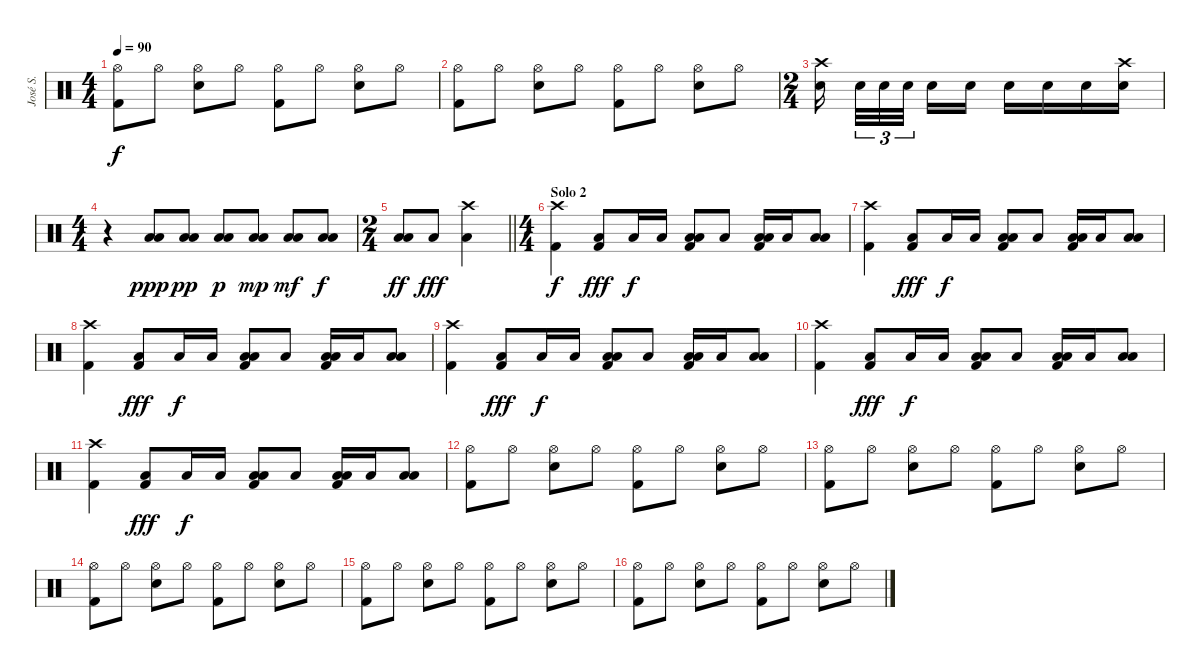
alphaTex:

\track ("José S." "José S.") {instrument percussion}
\staff {score}
\articulation defaults
\ts (4 4)
\tempo 90
\clef neutral
\ks c
("Hi-Hat (open)" "Kick (hit) 2").8{dy f} "Hi-Hat (open)".8 ("Hi-Hat (open)" "Electric Snare (hit)").8 "Hi-Hat (open)".8 ("Hi-Hat (open)" "Kick (hit) 2").8 "Hi-Hat (open)".8 ("Hi-Hat (open)" "Electric Snare (hit)").8 "Hi-Hat (open)".8 |
("Hi-Hat (open)" "Kick (hit) 2").8 "Hi-Hat (open)".8 ("Hi-Hat (open)" "Electric Snare (hit)").8 "Hi-Hat (open)".8 ("Hi-Hat (open)" "Kick (hit) 2").8 "Hi-Hat (open)".8 ("Hi-Hat (open)" "Electric Snare (hit)").8 "Hi-Hat (open)".8 |
\ts (2 4)
("Crash high (hit)" "Electric Snare (hit)").16{beam splitsecondary} "Electric Snare (hit)".32{tu (3 2)} "Electric Snare (hit)".32{tu (3 2)} "Electric Snare (hit)".32{tu (3 2) beam splitsecondary} "Electric Snare (hit)".16 "Electric Snare (hit)".16 "Electric Snare (hit)".16 "Electric Snare (hit)".16 "Electric Snare (hit)".16 ("Crash high (hit)" "Electric Snare (hit)").16 |
\ts (4 4)
r.4 ("Low Tom (hit)" "Low Floor Tom (hit)").8{dy ppp} ("Low Tom (hit)" "Low Floor Tom (hit)").8{dy pp} ("Low Tom (hit)" "Low Floor Tom (hit)").8{dy p} ("Low Tom (hit)" "Low Floor Tom (hit)").8{dy mp} ("Low Tom (hit)" "Low Floor Tom (hit)").8{dy mf} ("Low Tom (hit)" "Low Floor Tom (hit)").8{dy f} |
\ts (2 4)
\barLineRight lightlight
("Low Tom (hit)" "Low Floor Tom (hit)").8{dy ff} "Low Floor Tom (hit)".8{dy fff} ("Crash high (hit)" "Low Floor Tom (hit)").4 |
\ts (4 4)
\section ("" "Solo 2")
("Crash high (hit)" "Kick (hit) 2").4{dy f} ("Low Floor Tom (hit)" "Kick (hit) 2").8{dy fff} "Low Floor Tom (hit)".16{dy f} "Low Floor Tom (hit)".16 ("Low Tom (hit)" "Low Floor Tom (hit)" "Kick (hit) 2").8 "Low Floor Tom (hit)".8 ("Low Tom (hit)" "Low Floor Tom (hit)" "Kick (hit) 2").16 "Low Floor Tom (hit)".16 ("Low Tom (hit)" "Low Floor Tom (hit)").8 |
("Crash high (hit)" "Kick (hit) 2").4 ("Low Floor Tom (hit)" "Kick (hit) 2").8{dy fff} "Low Floor Tom (hit)".16{dy f} "Low Floor Tom (hit)".16 ("Low Tom (hit)" "Low Floor Tom (hit)" "Kick (hit) 2").8 "Low Floor Tom (hit)".8 ("Low Tom (hit)" "Low Floor Tom (hit)" "Kick (hit) 2").16 "Low Floor Tom (hit)".16 ("Low Tom (hit)" "Low Floor Tom (hit)").8 |
("Crash high (hit)" "Kick (hit) 2").4 ("Low Floor Tom (hit)" "Kick (hit) 2").8{dy fff} "Low Floor Tom (hit)".16{dy f} "Low Floor Tom (hit)".16 ("Low Tom (hit)" "Low Floor Tom (hit)" "Kick (hit) 2").8 "Low Floor Tom (hit)".8 ("Low Tom (hit)" "Low Floor Tom (hit)" "Kick (hit) 2").16 "Low Floor Tom (hit)".16 ("Low Tom (hit)" "Low Floor Tom (hit)").8 |
("Crash high (hit)" "Kick (hit) 2").4 ("Low Floor Tom (hit)" "Kick (hit) 2").8{dy fff} "Low Floor Tom (hit)".16{dy f} "Low Floor Tom (hit)".16 ("Low Tom (hit)" "Low Floor Tom (hit)" "Kick (hit) 2").8 "Low Floor Tom (hit)".8 ("Low Tom (hit)" "Low Floor Tom (hit)" "Kick (hit) 2").16 "Low Floor Tom (hit)".16 ("Low Tom (hit)" "Low Floor Tom (hit)").8 |
("Crash high (hit)" "Kick (hit) 2").4 ("Low Floor Tom (hit)" "Kick (hit) 2").8{dy fff} "Low Floor Tom (hit)".16{dy f} "Low Floor Tom (hit)".16 ("Low Tom (hit)" "Low Floor Tom (hit)" "Kick (hit) 2").8 "Low Floor Tom (hit)".8 ("Low Tom (hit)" "Low Floor Tom (hit)" "Kick (hit) 2").16 "Low Floor Tom (hit)".16 ("Low Tom (hit)" "Low Floor Tom (hit)").8 |
("Crash high (hit)" "Kick (hit) 2").4 ("Low Floor Tom (hit)" "Kick (hit) 2").8{dy fff} "Low Floor Tom (hit)".16{dy f} "Low Floor Tom (hit)".16 ("Low Tom (hit)" "Low Floor Tom (hit)" "Kick (hit) 2").8 "Low Floor Tom (hit)".8 ("Low Tom (hit)" "Low Floor Tom (hit)" "Kick (hit) 2").16 "Low Floor Tom (hit)".16 ("Low Tom (hit)" "Low Floor Tom (hit)").8 |
("Hi-Hat (open)" "Kick (hit) 2").8 "Hi-Hat (open)".8 ("Hi-Hat (open)" "Electric Snare (hit)").8 "Hi-Hat (open)".8 ("Hi-Hat (open)" "Kick (hit) 2").8 "Hi-Hat (open)".8 ("Hi-Hat (open)" "Electric Snare (hit)").8 "Hi-Hat (open)".8 |
("Hi-Hat (open)" "Kick (hit) 2").8 "Hi-Hat (open)".8 ("Hi-Hat (open)" "Electric Snare (hit)").8 "Hi-Hat (open)".8 ("Hi-Hat (open)" "Kick (hit) 2").8 "Hi-Hat (open)".8 ("Hi-Hat (open)" "Electric Snare (hit)").8 "Hi-Hat (open)".8 |
("Hi-Hat (open)" "Kick (hit) 2").8 "Hi-Hat (open)".8 ("Hi-Hat (open)" "Electric Snare (hit)").8 "Hi-Hat (open)".8 ("Hi-Hat (open)" "Kick (hit) 2").8 "Hi-Hat (open)".8 ("Hi-Hat (open)" "Electric Snare (hit)").8 "Hi-Hat (open)".8 |
("Hi-Hat (open)" "Kick (hit) 2").8 "Hi-Hat (open)".8 ("Hi-Hat (open)" "Electric Snare (hit)").8 "Hi-Hat (open)".8 ("Hi-Hat (open)" "Kick (hit) 2").8 "Hi-Hat (open)".8 ("Hi-Hat (open)" "Electric Snare (hit)").8 "Hi-Hat (open)".8 |
("Hi-Hat (open)" "Kick (hit) 2").8 "Hi-Hat (open)".8 ("Hi-Hat (open)" "Electric Snare (hit)").8 "Hi-Hat (open)".8 ("Hi-Hat (open)" "Kick (hit) 2").8 "Hi-Hat (open)".8 ("Hi-Hat (open)" "Electric Snare (hit)").8 "Hi-Hat (open)".8
